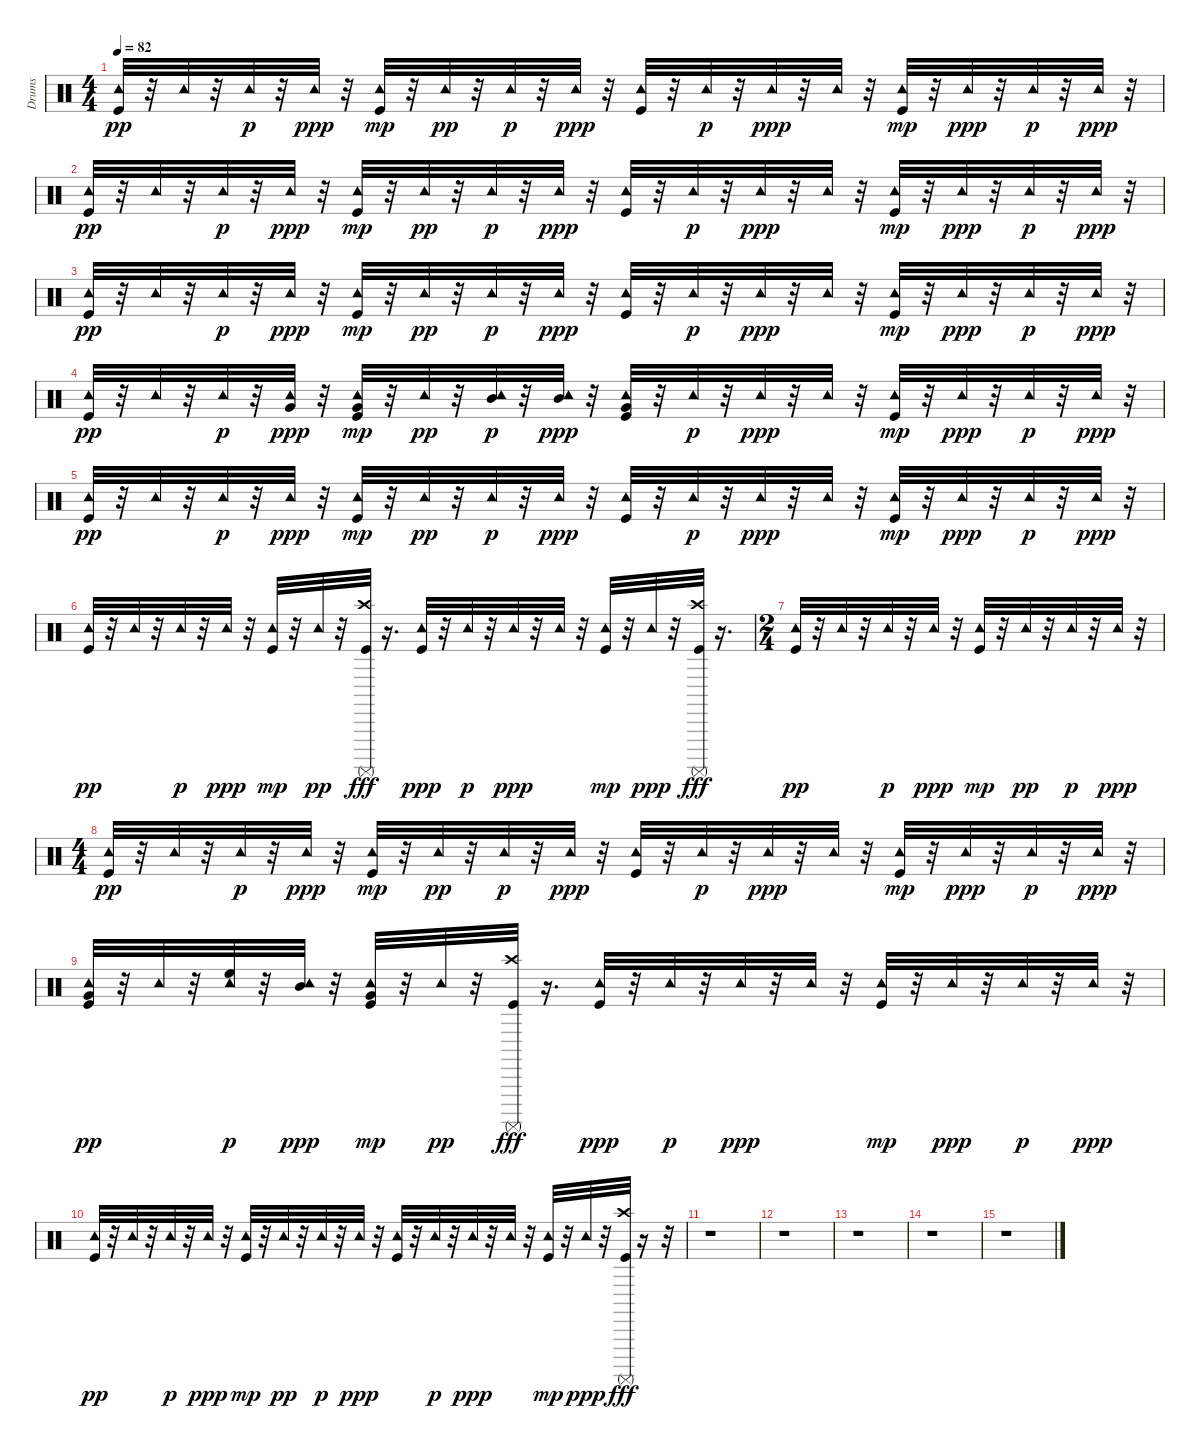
\track ("Drums" "Drums") {instrument percussion}
\staff {score}
\articulation defaults
\ts (4 4)
\tempo 82
\clef neutral
\ks c
("Kick (hit)" "Tambourine (hit)").32{dy pp} r.32 "Tambourine (hit)".32 r.32 "Tambourine (hit)".32{dy p} r.32 "Tambourine (hit)".32{dy ppp} r.32 ("Kick (hit)" "Tambourine (hit)").32{dy mp} r.32 "Tambourine (hit)".32{dy pp} r.32 "Tambourine (hit)".32{dy p} r.32 "Tambourine (hit)".32{dy ppp} r.32 ("Kick (hit)" "Tambourine (hit)").32 r.32 "Tambourine (hit)".32{dy p} r.32 "Tambourine (hit)".32{dy ppp} r.32 "Tambourine (hit)".32 r.32 ("Kick (hit)" "Tambourine (hit)").32{dy mp} r.32 "Tambourine (hit)".32{dy ppp} r.32 "Tambourine (hit)".32{dy p} r.32 "Tambourine (hit)".32{dy ppp} r.32 |
("Kick (hit)" "Tambourine (hit)").32{dy pp} r.32 "Tambourine (hit)".32 r.32 "Tambourine (hit)".32{dy p} r.32 "Tambourine (hit)".32{dy ppp} r.32 ("Kick (hit)" "Tambourine (hit)").32{dy mp} r.32 "Tambourine (hit)".32{dy pp} r.32 "Tambourine (hit)".32{dy p} r.32 "Tambourine (hit)".32{dy ppp} r.32 ("Kick (hit)" "Tambourine (hit)").32 r.32 "Tambourine (hit)".32{dy p} r.32 "Tambourine (hit)".32{dy ppp} r.32 "Tambourine (hit)".32 r.32 ("Kick (hit)" "Tambourine (hit)").32{dy mp} r.32 "Tambourine (hit)".32{dy ppp} r.32 "Tambourine (hit)".32{dy p} r.32 "Tambourine (hit)".32{dy ppp} r.32 |
("Kick (hit)" "Tambourine (hit)").32{dy pp} r.32 "Tambourine (hit)".32 r.32 "Tambourine (hit)".32{dy p} r.32 "Tambourine (hit)".32{dy ppp} r.32 ("Kick (hit)" "Tambourine (hit)").32{dy mp} r.32 "Tambourine (hit)".32{dy pp} r.32 "Tambourine (hit)".32{dy p} r.32 "Tambourine (hit)".32{dy ppp} r.32 ("Kick (hit)" "Tambourine (hit)").32 r.32 "Tambourine (hit)".32{dy p} r.32 "Tambourine (hit)".32{dy ppp} r.32 "Tambourine (hit)".32 r.32 ("Kick (hit)" "Tambourine (hit)").32{dy mp} r.32 "Tambourine (hit)".32{dy ppp} r.32 "Tambourine (hit)".32{dy p} r.32 "Tambourine (hit)".32{dy ppp} r.32 |
("Kick (hit)" "Tambourine (hit)").32{dy pp} r.32 "Tambourine (hit)".32 r.32 "Tambourine (hit)".32{dy p} r.32 ("Very Low Tom (hit)" "Tambourine (hit)").32{dy ppp} r.32 ("Very Low Tom (hit)" "Kick (hit)" "Tambourine (hit)").32{dy mp} r.32 "Tambourine (hit)".32{dy pp} r.32 ("Mid Tom (hit)" "Tambourine (hit)").32{dy p} r.32 ("Mid Tom (hit)" "Tambourine (hit)").32{dy ppp} r.32 ("Very Low Tom (hit)" "Kick (hit)" "Tambourine (hit)").32 r.32 "Tambourine (hit)".32{dy p} r.32 "Tambourine (hit)".32{dy ppp} r.32 "Tambourine (hit)".32 r.32 ("Kick (hit)" "Tambourine (hit)").32{dy mp} r.32 "Tambourine (hit)".32{dy ppp} r.32 "Tambourine (hit)".32{dy p} r.32 "Tambourine (hit)".32{dy ppp} r.32 |
("Kick (hit)" "Tambourine (hit)").32{dy pp} r.32 "Tambourine (hit)".32 r.32 "Tambourine (hit)".32{dy p} r.32 "Tambourine (hit)".32{dy ppp} r.32 ("Kick (hit)" "Tambourine (hit)").32{dy mp} r.32 "Tambourine (hit)".32{dy pp} r.32 "Tambourine (hit)".32{dy p} r.32 "Tambourine (hit)".32{dy ppp} r.32 ("Kick (hit)" "Tambourine (hit)").32 r.32 "Tambourine (hit)".32{dy p} r.32 "Tambourine (hit)".32{dy ppp} r.32 "Tambourine (hit)".32 r.32 ("Kick (hit)" "Tambourine (hit)").32{dy mp} r.32 "Tambourine (hit)".32{dy ppp} r.32 "Tambourine (hit)".32{dy p} r.32 "Tambourine (hit)".32{dy ppp} r.32 |
("Kick (hit)" "Tambourine (hit)").32{dy pp} r.32 "Tambourine (hit)".32 r.32 "Tambourine (hit)".32{dy p} r.32 "Tambourine (hit)".32{dy ppp} r.32 ("Kick (hit)" "Tambourine (hit)").32{dy mp} r.32 "Tambourine (hit)".32{dy pp} r.32 ("Crash high (hit)" "Surdo (mute)" "Kick (hit)").32{dy fff} r.16{d} ("Kick (hit)" "Tambourine (hit)").32{dy ppp} r.32 "Tambourine (hit)".32{dy p} r.32 "Tambourine (hit)".32{dy ppp} r.32 "Tambourine (hit)".32 r.32 ("Kick (hit)" "Tambourine (hit)").32{dy mp} r.32 "Tambourine (hit)".32{dy ppp} r.32 ("Kick (hit)" "Surdo (mute)" "Crash high (hit)").32{dy fff} r.16{d} |
\ts (2 4)
("Kick (hit)" "Tambourine (hit)").32{dy pp} r.32 "Tambourine (hit)".32 r.32 "Tambourine (hit)".32{dy p} r.32 "Tambourine (hit)".32{dy ppp} r.32 ("Kick (hit)" "Tambourine (hit)").32{dy mp} r.32 "Tambourine (hit)".32{dy pp} r.32 "Tambourine (hit)".32{dy p} r.32 "Tambourine (hit)".32{dy ppp} r.32 |
\ts (4 4)
("Kick (hit)" "Tambourine (hit)").32{dy pp} r.32 "Tambourine (hit)".32 r.32 "Tambourine (hit)".32{dy p} r.32 "Tambourine (hit)".32{dy ppp} r.32 ("Kick (hit)" "Tambourine (hit)").32{dy mp} r.32 "Tambourine (hit)".32{dy pp} r.32 "Tambourine (hit)".32{dy p} r.32 "Tambourine (hit)".32{dy ppp} r.32 ("Kick (hit)" "Tambourine (hit)").32 r.32 "Tambourine (hit)".32{dy p} r.32 "Tambourine (hit)".32{dy ppp} r.32 "Tambourine (hit)".32 r.32 ("Kick (hit)" "Tambourine (hit)").32{dy mp} r.32 "Tambourine (hit)".32{dy ppp} r.32 "Tambourine (hit)".32{dy p} r.32 "Tambourine (hit)".32{dy ppp} r.32 |
("Very Low Tom (hit)" "Kick (hit)" "Tambourine (hit)").32{dy pp} r.32 "Tambourine (hit)".32 r.32 ("High Floor Tom (hit)" "Tambourine (hit)").32{dy p} r.32 ("Mid Tom (hit)" "Tambourine (hit)").32{dy ppp} r.32 ("Very Low Tom (hit)" "Kick (hit)" "Tambourine (hit)").32{dy mp} r.32 "Tambourine (hit)".32{dy pp} r.32 ("Crash high (hit)" "Surdo (mute)" "Kick (hit)").32{dy fff} r.16{d} ("Kick (hit)" "Tambourine (hit)").32{dy ppp} r.32 "Tambourine (hit)".32{dy p} r.32 "Tambourine (hit)".32{dy ppp} r.32 "Tambourine (hit)".32 r.32 ("Kick (hit)" "Tambourine (hit)").32{dy mp} r.32 "Tambourine (hit)".32{dy ppp} r.32 "Tambourine (hit)".32{dy p} r.32 "Tambourine (hit)".32{dy ppp} r.32 |
("Kick (hit)" "Tambourine (hit)").32{dy pp} r.32 "Tambourine (hit)".32 r.32 "Tambourine (hit)".32{dy p} r.32 "Tambourine (hit)".32{dy ppp} r.32 ("Kick (hit)" "Tambourine (hit)").32{dy mp} r.32 "Tambourine (hit)".32{dy pp} r.32 "Tambourine (hit)".32{dy p} r.32 "Tambourine (hit)".32{dy ppp} r.32 ("Kick (hit)" "Tambourine (hit)").32 r.32 "Tambourine (hit)".32{dy p} r.32 "Tambourine (hit)".32{dy ppp} r.32 "Tambourine (hit)".32 r.32 ("Kick (hit)" "Tambourine (hit)").32{dy mp} r.32 "Tambourine (hit)".32{dy ppp} r.32 ("Kick (hit)" "Surdo (mute)" "Crash high (hit)").32{dy fff} r.16 r.32 |
r.1 |
r.1 |
r.1 |
r.1 |
r.1
